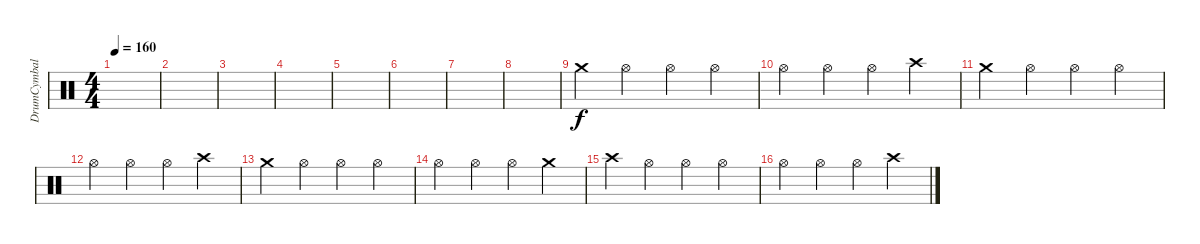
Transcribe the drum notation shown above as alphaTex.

\track ("DrumCymbal" "DrumCymbal") {instrument percussion}
\staff {score}
\articulation defaults
\ts (4 4)
\tempo 160
\clef neutral
\ks c
|
|
|
|
|
|
|
|
"Crash medium (hit)".4 "Hi-Hat (open)".4 "Hi-Hat (open)".4 "Hi-Hat (open)".4 |
"Hi-Hat (open)".4 "Hi-Hat (open)".4 "Hi-Hat (open)".4 "Crash high (hit)".4 |
"Crash medium (hit)".4 "Hi-Hat (open)".4 "Hi-Hat (open)".4 "Hi-Hat (open)".4 |
"Hi-Hat (open)".4 "Hi-Hat (open)".4 "Hi-Hat (open)".4 "Crash high (hit)".4 |
"Crash medium (hit)".4 "Hi-Hat (open)".4 "Hi-Hat (open)".4 "Hi-Hat (open)".4 |
"Hi-Hat (open)".4 "Hi-Hat (open)".4 "Hi-Hat (open)".4 "Crash medium (hit)".4 |
"Crash high (hit)".4 "Hi-Hat (open)".4 "Hi-Hat (open)".4 "Hi-Hat (open)".4 |
"Hi-Hat (open)".4 "Hi-Hat (open)".4 "Hi-Hat (open)".4 "Crash high (hit)".4
